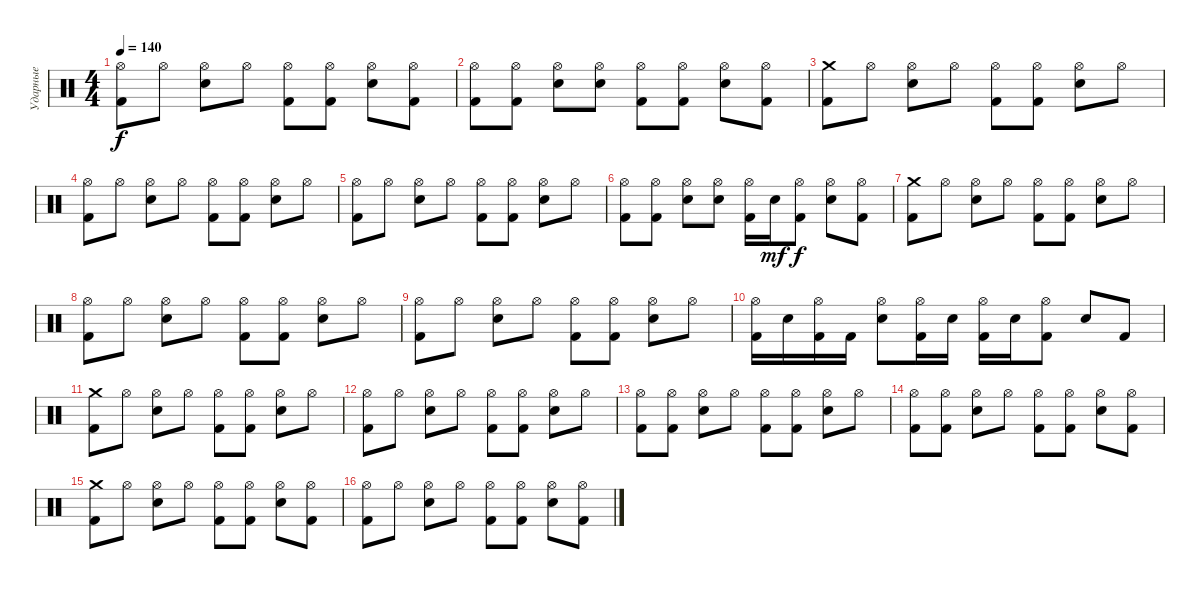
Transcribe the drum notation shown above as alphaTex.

\track ("Ударные" "Ударные") {instrument percussion}
\staff {score}
\articulation defaults
\ts (4 4)
\tempo 140
\clef neutral
\ks c
("Hi-Hat (open)" "Kick (hit) 2").8{dy f} "Hi-Hat (open)".8 ("Hi-Hat (open)" "Electric Snare (hit)").8 "Hi-Hat (open)".8 ("Hi-Hat (open)" "Kick (hit) 2").8 ("Hi-Hat (open)" "Kick (hit) 2").8 ("Hi-Hat (open)" "Electric Snare (hit)").8 ("Hi-Hat (open)" "Kick (hit) 2").8 |
("Hi-Hat (open)" "Kick (hit) 2").8 ("Hi-Hat (open)" "Kick (hit) 2").8 ("Hi-Hat (open)" "Electric Snare (hit)").8 ("Hi-Hat (open)" "Electric Snare (hit)").8 ("Hi-Hat (open)" "Kick (hit) 2").8 ("Hi-Hat (open)" "Kick (hit) 2").8 ("Hi-Hat (open)" "Electric Snare (hit)").8 ("Hi-Hat (open)" "Kick (hit) 2").8 |
("Crash medium (hit)" "Kick (hit) 2").8 "Hi-Hat (open)".8 ("Hi-Hat (open)" "Electric Snare (hit)").8 "Hi-Hat (open)".8 ("Hi-Hat (open)" "Kick (hit) 2").8 ("Hi-Hat (open)" "Kick (hit) 2").8 ("Hi-Hat (open)" "Electric Snare (hit)").8 "Hi-Hat (open)".8 |
("Hi-Hat (open)" "Kick (hit) 2").8 "Hi-Hat (open)".8 ("Hi-Hat (open)" "Electric Snare (hit)").8 "Hi-Hat (open)".8 ("Hi-Hat (open)" "Kick (hit) 2").8 ("Hi-Hat (open)" "Kick (hit) 2").8 ("Hi-Hat (open)" "Electric Snare (hit)").8 "Hi-Hat (open)".8 |
("Hi-Hat (open)" "Kick (hit) 2").8 "Hi-Hat (open)".8 ("Hi-Hat (open)" "Electric Snare (hit)").8 "Hi-Hat (open)".8 ("Hi-Hat (open)" "Kick (hit) 2").8 ("Hi-Hat (open)" "Kick (hit) 2").8 ("Hi-Hat (open)" "Electric Snare (hit)").8 "Hi-Hat (open)".8 |
("Hi-Hat (open)" "Kick (hit) 2").8 ("Hi-Hat (open)" "Kick (hit) 2").8 ("Hi-Hat (open)" "Electric Snare (hit)").8 ("Hi-Hat (open)" "Electric Snare (hit)").8 ("Hi-Hat (open)" "Kick (hit) 2").16 "Electric Snare (hit)".16{dy mf} ("Hi-Hat (open)" "Kick (hit) 2").8{dy f} ("Hi-Hat (open)" "Electric Snare (hit)").8 ("Hi-Hat (open)" "Kick (hit) 2").8 |
("Crash medium (hit)" "Kick (hit) 2").8 "Hi-Hat (open)".8 ("Hi-Hat (open)" "Electric Snare (hit)").8 "Hi-Hat (open)".8 ("Hi-Hat (open)" "Kick (hit) 2").8 ("Hi-Hat (open)" "Kick (hit) 2").8 ("Hi-Hat (open)" "Electric Snare (hit)").8 "Hi-Hat (open)".8 |
("Hi-Hat (open)" "Kick (hit) 2").8 "Hi-Hat (open)".8 ("Hi-Hat (open)" "Electric Snare (hit)").8 "Hi-Hat (open)".8 ("Hi-Hat (open)" "Kick (hit) 2").8 ("Hi-Hat (open)" "Kick (hit) 2").8 ("Hi-Hat (open)" "Electric Snare (hit)").8 "Hi-Hat (open)".8 |
("Hi-Hat (open)" "Kick (hit) 2").8 "Hi-Hat (open)".8 ("Hi-Hat (open)" "Electric Snare (hit)").8 "Hi-Hat (open)".8 ("Hi-Hat (open)" "Kick (hit) 2").8 ("Hi-Hat (open)" "Kick (hit) 2").8 ("Hi-Hat (open)" "Electric Snare (hit)").8 "Hi-Hat (open)".8 |
("Hi-Hat (open)" "Kick (hit) 2").16 "Electric Snare (hit)".16 ("Hi-Hat (open)" "Kick (hit) 2").16 "Kick (hit) 2".16 ("Hi-Hat (open)" "Electric Snare (hit)").8 ("Hi-Hat (open)" "Kick (hit) 2").16 "Electric Snare (hit)".16 ("Hi-Hat (open)" "Kick (hit) 2").16 "Electric Snare (hit)".16 ("Hi-Hat (open)" "Kick (hit) 2").8 "Electric Snare (hit)".8 "Kick (hit) 2".8 |
("Crash medium (hit)" "Kick (hit) 2").8 "Hi-Hat (open)".8 ("Hi-Hat (open)" "Electric Snare (hit)").8 "Hi-Hat (open)".8 ("Hi-Hat (open)" "Kick (hit) 2").8 ("Hi-Hat (open)" "Kick (hit) 2").8 ("Hi-Hat (open)" "Electric Snare (hit)").8 "Hi-Hat (open)".8 |
("Hi-Hat (open)" "Kick (hit) 2").8 "Hi-Hat (open)".8 ("Hi-Hat (open)" "Electric Snare (hit)").8 "Hi-Hat (open)".8 ("Hi-Hat (open)" "Kick (hit) 2").8 ("Hi-Hat (open)" "Kick (hit) 2").8 ("Hi-Hat (open)" "Electric Snare (hit)").8 "Hi-Hat (open)".8 |
("Hi-Hat (open)" "Kick (hit) 2").8 ("Hi-Hat (open)" "Kick (hit) 2").8 ("Hi-Hat (open)" "Electric Snare (hit)").8 "Hi-Hat (open)".8 ("Hi-Hat (open)" "Kick (hit) 2").8 ("Hi-Hat (open)" "Kick (hit) 2").8 ("Hi-Hat (open)" "Electric Snare (hit)").8 "Hi-Hat (open)".8 |
("Hi-Hat (open)" "Kick (hit) 2").8 ("Hi-Hat (open)" "Kick (hit) 2").8 ("Hi-Hat (open)" "Electric Snare (hit)").8 "Hi-Hat (open)".8 ("Hi-Hat (open)" "Kick (hit) 2").8 ("Hi-Hat (open)" "Kick (hit) 2").8 ("Hi-Hat (open)" "Electric Snare (hit)").8 ("Hi-Hat (open)" "Kick (hit) 2").8 |
("Crash medium (hit)" "Kick (hit) 2").8 "Hi-Hat (open)".8 ("Hi-Hat (open)" "Electric Snare (hit)").8 "Hi-Hat (open)".8 ("Hi-Hat (open)" "Kick (hit) 2").8 ("Hi-Hat (open)" "Kick (hit) 2").8 ("Hi-Hat (open)" "Electric Snare (hit)").8 ("Hi-Hat (open)" "Kick (hit) 2").8 |
("Hi-Hat (open)" "Kick (hit) 2").8 "Hi-Hat (open)".8 ("Hi-Hat (open)" "Electric Snare (hit)").8 "Hi-Hat (open)".8 ("Hi-Hat (open)" "Kick (hit) 2").8 ("Hi-Hat (open)" "Kick (hit) 2").8 ("Hi-Hat (open)" "Electric Snare (hit)").8 ("Hi-Hat (open)" "Kick (hit) 2").8
